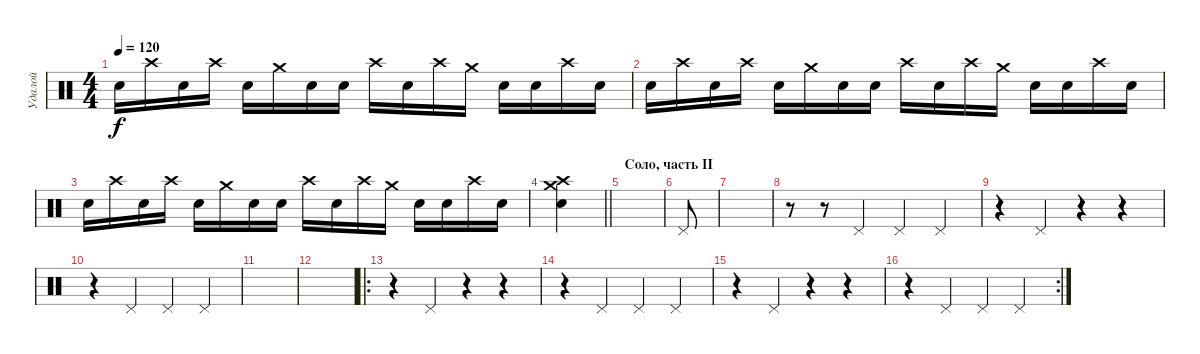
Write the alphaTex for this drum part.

\track ("Удалой" "Удалой") {instrument percussion}
\staff {score}
\articulation defaults
\ts (4 4)
\tempo 120
\clef neutral
\ks c "Snare (hit) 2".16{dy f} "Crash high (hit)".16 "Snare (hit) 2".16 "Crash high (hit)".16 "Snare (hit) 2".16 "Crash medium (hit)".16 "Snare (hit) 2".16 "Snare (hit) 2".16 "Crash high (hit)".16 "Snare (hit) 2".16 "Crash high (hit)".16 "Crash medium (hit)".16 "Snare (hit) 2".16 "Snare (hit) 2".16 "Crash high (hit)".16 "Snare (hit) 2".16
|
"Snare (hit) 2".16 "Crash high (hit)".16 "Snare (hit) 2".16 "Crash high (hit)".16 "Snare (hit) 2".16 "Crash medium (hit)".16 "Snare (hit) 2".16 "Snare (hit) 2".16 "Crash high (hit)".16 "Snare (hit) 2".16 "Crash high (hit)".16 "Crash medium (hit)".16 "Snare (hit) 2".16 "Snare (hit) 2".16 "Crash high (hit)".16 "Snare (hit) 2".16 |
"Snare (hit) 2".16 "Crash high (hit)".16 "Snare (hit) 2".16 "Crash high (hit)".16 "Snare (hit) 2".16 "Crash medium (hit)".16 "Snare (hit) 2".16 "Snare (hit) 2".16 "Crash high (hit)".16 "Snare (hit) 2".16 "Crash high (hit)".16 "Crash medium (hit)".16 "Snare (hit) 2".16 "Snare (hit) 2".16 "Crash high (hit)".16 "Snare (hit) 2".16 |
\barLineRight lightlight
("Snare (hit) 2" "Crash high (hit)" "Crash medium (hit)").4 |
\section ("" "Соло, часть II")
|
"Pedal Hi-Hat (hit)".8 |
|
r.8 r.8 "Pedal Hi-Hat (hit)".4 "Pedal Hi-Hat (hit)".4 "Pedal Hi-Hat (hit)".4 |
r.4 "Pedal Hi-Hat (hit)".4 r.4 r.4 |
r.4 "Pedal Hi-Hat (hit)".4 "Pedal Hi-Hat (hit)".4 "Pedal Hi-Hat (hit)".4 |
|
|
\ro
r.4 "Pedal Hi-Hat (hit)".4 r.4 r.4 |
r.4 "Pedal Hi-Hat (hit)".4 "Pedal Hi-Hat (hit)".4 "Pedal Hi-Hat (hit)".4 |
r.4 "Pedal Hi-Hat (hit)".4 r.4 r.4 |
\rc 2
r.4 "Pedal Hi-Hat (hit)".4 "Pedal Hi-Hat (hit)".4 "Pedal Hi-Hat (hit)".4
